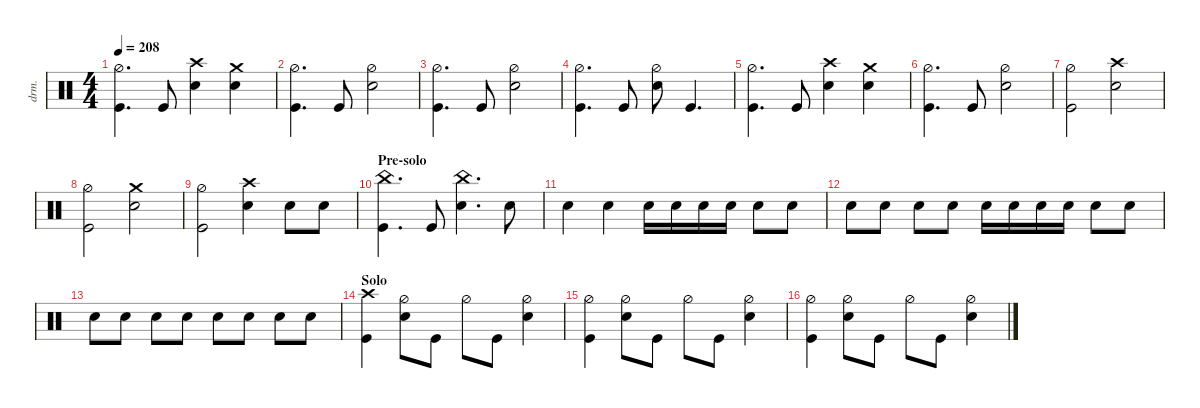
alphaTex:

\defaultSystemsLayout 4
\hideDynamics
\bracketExtendMode nobrackets
\otherSystemsTrackNameOrientation horizontal
\track ("Drums" "drm.") {multiBarRest instrument percussion}
\staff
\articulation defaults
\ts (4 4)
\tempo 208
\clef neutral
\ks c
("Kick (hit)" "Hi-Hat (half)").4{d dy f} "Kick (hit)".8 ("Snare (hit) 2" "Crash high (hit)").4 ("Snare (hit) 2" "Crash medium (hit)").4 |
("Kick (hit)" "Hi-Hat (half)").4{d} "Kick (hit)".8 ("Snare (hit) 2" "Hi-Hat (half)").2 |
("Kick (hit)" "Hi-Hat (half)").4{d} "Kick (hit)".8 ("Snare (hit) 2" "Hi-Hat (half)").2 |
("Kick (hit)" "Hi-Hat (half)").4{d} "Kick (hit)".8 ("Snare (hit) 2" "Hi-Hat (half)").8 "Kick (hit)".4{d} |
("Kick (hit)" "Hi-Hat (half)").4{d} "Kick (hit)".8 ("Snare (hit) 2" "Crash high (hit)").4 ("Snare (hit) 2" "Crash medium (hit)").4 |
("Kick (hit)" "Hi-Hat (half)").4{d} "Kick (hit)".8 ("Snare (hit) 2" "Hi-Hat (half)").2 |
("Kick (hit)" "Hi-Hat (half)").2 ("Snare (hit) 2" "Crash high (hit)").2 |
("Kick (hit)" "Hi-Hat (half)").2 ("Snare (hit) 2" "Crash medium (hit)").2 |
("Kick (hit)" "Hi-Hat (half)").2 ("Snare (hit) 2" "Crash high (hit)").4 "Snare (hit) 2".8 "Snare (hit) 2".8 |
\section ("" "Pre-solo")
("China (hit)" "Kick (hit)").4{d} "Kick (hit)".8 ("Snare (hit) 2" "China (hit)").4{d} "Snare (hit) 2".8 |
"Snare (hit) 2".4 "Snare (hit) 2".4 "Snare (hit) 2".16 "Snare (hit) 2".16 "Snare (hit) 2".16 "Snare (hit) 2".16 "Snare (hit) 2".8 "Snare (hit) 2".8 |
"Snare (hit) 2".8 "Snare (hit) 2".8 "Snare (hit) 2".8 "Snare (hit) 2".8 "Snare (hit) 2".16 "Snare (hit) 2".16 "Snare (hit) 2".16 "Snare (hit) 2".16 "Snare (hit) 2".8 "Snare (hit) 2".8 |
"Snare (hit) 2".8 "Snare (hit) 2".8 "Snare (hit) 2".8 "Snare (hit) 2".8 "Snare (hit) 2".8 "Snare (hit) 2".8 "Snare (hit) 2".8 "Snare (hit) 2".8 |
\section ("" "Solo")
("Crash high (hit)" "Kick (hit)").4 ("Snare (hit) 2" "Hi-Hat (half)").8 "Kick (hit)".8 "Hi-Hat (half)".8 "Kick (hit)".8 ("Snare (hit) 2" "Hi-Hat (half)").4 |
("Kick (hit)" "Hi-Hat (half)").4 ("Snare (hit) 2" "Hi-Hat (half)").8 "Kick (hit)".8 "Hi-Hat (half)".8 "Kick (hit)".8 ("Snare (hit) 2" "Hi-Hat (half)").4 |
("Kick (hit)" "Hi-Hat (half)").4 ("Snare (hit) 2" "Hi-Hat (half)").8 "Kick (hit)".8 "Hi-Hat (half)".8 "Kick (hit)".8 ("Snare (hit) 2" "Hi-Hat (half)").4
